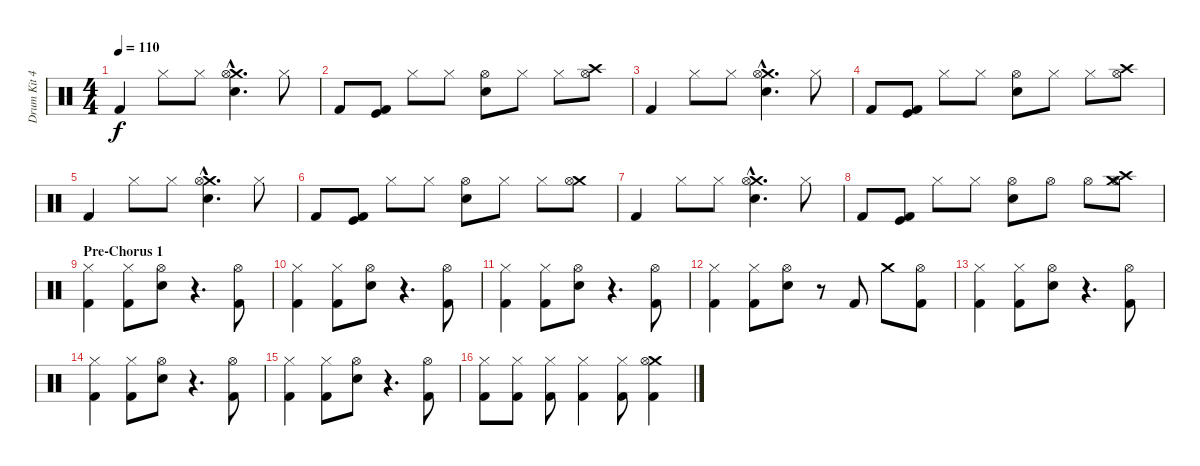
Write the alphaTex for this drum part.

\track ("Drum Kit 42" "Drum Kit 4") {instrument percussion}
\staff {score}
\articulation defaults
\ts (4 4)
\tempo 110
\clef neutral
\ks c "Kick (hit) 2".4{dy f} "Hi-Hat (closed)".8 "Hi-Hat (closed)".8
("Crash medium (hit)"{hac} "Hi-Hat (open)"{hac} "Snare (hit) 2"{hac}).4{d} "Hi-Hat (closed)".8 |
"Kick (hit) 2".8 ("Kick (hit)" "Kick (hit) 2").8 "Hi-Hat (closed)".8 "Hi-Hat (closed)".8 ("Hi-Hat (open)" "Snare (hit) 2").8 "Hi-Hat (closed)".8 "Hi-Hat (closed)".8 ("Crash high (hit)" "Hi-Hat (open)").8 |
"Kick (hit) 2".4 "Hi-Hat (closed)".8 "Hi-Hat (closed)".8 ("Crash medium (hit)"{hac} "Hi-Hat (open)"{hac} "Snare (hit) 2"{hac}).4{d} "Hi-Hat (closed)".8 |
"Kick (hit) 2".8 ("Kick (hit)" "Kick (hit) 2").8 "Hi-Hat (closed)".8 "Hi-Hat (closed)".8 ("Hi-Hat (open)" "Snare (hit) 2").8 "Hi-Hat (closed)".8 "Hi-Hat (closed)".8 ("Crash high (hit)" "Hi-Hat (open)").8 |
"Kick (hit) 2".4 "Hi-Hat (closed)".8 "Hi-Hat (closed)".8 ("Crash medium (hit)"{hac} "Hi-Hat (open)"{hac} "Snare (hit) 2"{hac}).4{d} "Hi-Hat (closed)".8 |
"Kick (hit) 2".8 ("Kick (hit)" "Kick (hit) 2").8 "Hi-Hat (closed)".8 "Hi-Hat (closed)".8 ("Hi-Hat (open)" "Snare (hit) 2").8 "Hi-Hat (closed)".8 "Hi-Hat (closed)".8 ("Crash medium (hit)" "Hi-Hat (open)").8 |
"Kick (hit) 2".4 "Hi-Hat (closed)".8 "Hi-Hat (closed)".8 ("Crash medium (hit)"{hac} "Hi-Hat (open)"{hac} "Snare (hit) 2"{hac}).4{d} "Hi-Hat (closed)".8 |
"Kick (hit) 2".8 ("Kick (hit)" "Kick (hit) 2").8 "Hi-Hat (closed)".8 "Hi-Hat (closed)".8 ("Hi-Hat (open)" "Snare (hit) 2").8 "Hi-Hat (open)".8 "Hi-Hat (open)".8 ("Crash medium (hit)" "Crash high (hit)" "Hi-Hat (open)").8 |
\section ("" "Pre-Chorus 1")
("Hi-Hat (closed)" "Kick (hit) 2").4 ("Hi-Hat (closed)" "Kick (hit) 2").8 ("Hi-Hat (open)" "Snare (hit) 2").8 r.4{d} ("Hi-Hat (open)" "Kick (hit) 2").8 |
("Hi-Hat (closed)" "Kick (hit) 2").4 ("Hi-Hat (closed)" "Kick (hit) 2").8 ("Hi-Hat (open)" "Snare (hit) 2").8 r.4{d} ("Hi-Hat (open)" "Kick (hit) 2").8 |
("Hi-Hat (closed)" "Kick (hit) 2").4 ("Hi-Hat (closed)" "Kick (hit) 2").8 ("Hi-Hat (open)" "Snare (hit) 2").8 r.4{d} ("Hi-Hat (open)" "Kick (hit) 2").8 |
("Hi-Hat (closed)" "Kick (hit) 2").4 ("Hi-Hat (closed)" "Kick (hit) 2").8 ("Hi-Hat (open)" "Snare (hit) 2").8 r.8 "Kick (hit) 2".8 "Crash medium (hit)".8 ("Hi-Hat (open)" "Kick (hit) 2").8 |
("Hi-Hat (closed)" "Kick (hit) 2").4 ("Hi-Hat (closed)" "Kick (hit) 2").8 ("Hi-Hat (open)" "Snare (hit) 2").8 r.4{d} ("Hi-Hat (open)" "Kick (hit) 2").8 |
("Hi-Hat (closed)" "Kick (hit) 2").4 ("Hi-Hat (closed)" "Kick (hit) 2").8 ("Hi-Hat (open)" "Snare (hit) 2").8 r.4{d} ("Hi-Hat (open)" "Kick (hit) 2").8 |
("Hi-Hat (closed)" "Kick (hit) 2").4 ("Hi-Hat (closed)" "Kick (hit) 2").8 ("Hi-Hat (open)" "Snare (hit) 2").8 r.4{d} ("Hi-Hat (open)" "Kick (hit) 2").8 |
("Hi-Hat (closed)" "Kick (hit) 2").8 ("Hi-Hat (closed)" "Kick (hit) 2").8 ("Hi-Hat (closed)" "Kick (hit) 2").8 ("Hi-Hat (closed)" "Kick (hit) 2").4 ("Hi-Hat (closed)" "Kick (hit) 2").8 ("Crash medium (hit)" "Hi-Hat (open)" "Kick (hit) 2").4
